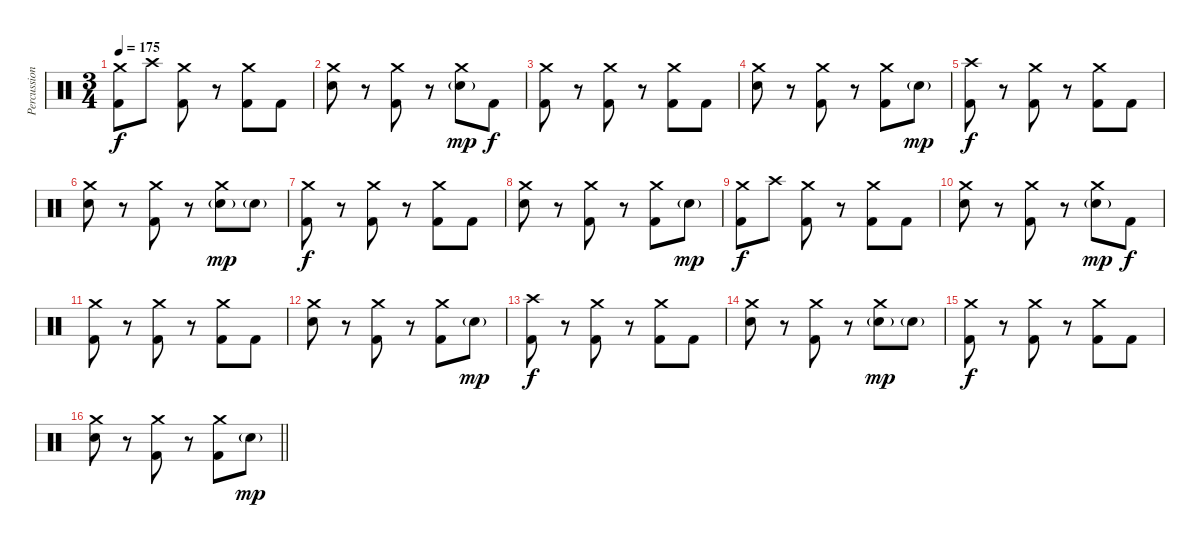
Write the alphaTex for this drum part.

\track ("Percussion" "Percussion") {instrument percussion}
\staff {score}
\articulation defaults
\ts (3 4)
\tempo 175
\clef neutral
\ks c
("Crash medium (hit)" "Kick (hit) 2").8{dy f} "Crash high (hit)".8 ("Crash medium (hit)" "Kick (hit) 2").8 r.8 ("Crash medium (hit)" "Kick (hit) 2").8 "Kick (hit) 2".8 |
("Crash medium (hit)" "Electric Snare (hit)").8 r.8 ("Crash medium (hit)" "Kick (hit) 2").8 r.8 ("Crash medium (hit)" "Electric Snare (hit)"{g}).8{dy mp} "Kick (hit) 2".8{dy f} |
("Crash medium (hit)" "Kick (hit) 2").8 r.8 ("Crash medium (hit)" "Kick (hit) 2").8 r.8 ("Crash medium (hit)" "Kick (hit) 2").8 "Kick (hit) 2".8 |
("Crash medium (hit)" "Electric Snare (hit)").8 r.8 ("Crash medium (hit)" "Kick (hit) 2").8 r.8 ("Crash medium (hit)" "Kick (hit) 2").8 "Electric Snare (hit)"{g}.8{dy mp} |
("Crash high (hit)" "Kick (hit) 2").8{dy f} r.8 ("Crash medium (hit)" "Kick (hit) 2").8 r.8 ("Crash medium (hit)" "Kick (hit) 2").8 "Kick (hit) 2".8 |
("Crash medium (hit)" "Electric Snare (hit)").8 r.8 ("Crash medium (hit)" "Kick (hit) 2").8 r.8 ("Crash medium (hit)" "Electric Snare (hit)"{g}).8{dy mp} "Electric Snare (hit)"{g}.8 |
("Crash medium (hit)" "Kick (hit) 2").8{dy f} r.8 ("Crash medium (hit)" "Kick (hit) 2").8 r.8 ("Crash medium (hit)" "Kick (hit) 2").8 "Kick (hit) 2".8 |
("Crash medium (hit)" "Electric Snare (hit)").8 r.8 ("Crash medium (hit)" "Kick (hit) 2").8 r.8 ("Crash medium (hit)" "Kick (hit) 2").8 "Electric Snare (hit)"{g}.8{dy mp} |
("Crash medium (hit)" "Kick (hit) 2").8{dy f} "Crash high (hit)".8 ("Crash medium (hit)" "Kick (hit) 2").8 r.8 ("Crash medium (hit)" "Kick (hit) 2").8 "Kick (hit) 2".8 |
("Crash medium (hit)" "Electric Snare (hit)").8 r.8 ("Crash medium (hit)" "Kick (hit) 2").8 r.8 ("Crash medium (hit)" "Electric Snare (hit)"{g}).8{dy mp} "Kick (hit) 2".8{dy f} |
("Crash medium (hit)" "Kick (hit) 2").8 r.8 ("Crash medium (hit)" "Kick (hit) 2").8 r.8 ("Crash medium (hit)" "Kick (hit) 2").8 "Kick (hit) 2".8 |
("Crash medium (hit)" "Electric Snare (hit)").8 r.8 ("Crash medium (hit)" "Kick (hit) 2").8 r.8 ("Crash medium (hit)" "Kick (hit) 2").8 "Electric Snare (hit)"{g}.8{dy mp} |
("Crash high (hit)" "Kick (hit) 2").8{dy f} r.8 ("Crash medium (hit)" "Kick (hit) 2").8 r.8 ("Crash medium (hit)" "Kick (hit) 2").8 "Kick (hit) 2".8 |
("Crash medium (hit)" "Electric Snare (hit)").8 r.8 ("Crash medium (hit)" "Kick (hit) 2").8 r.8 ("Crash medium (hit)" "Electric Snare (hit)"{g}).8{dy mp} "Electric Snare (hit)"{g}.8 |
("Crash medium (hit)" "Kick (hit) 2").8{dy f} r.8 ("Crash medium (hit)" "Kick (hit) 2").8 r.8 ("Crash medium (hit)" "Kick (hit) 2").8 "Kick (hit) 2".8 |
\barLineRight lightlight
("Crash medium (hit)" "Electric Snare (hit)").8 r.8 ("Crash medium (hit)" "Kick (hit) 2").8 r.8 ("Crash medium (hit)" "Kick (hit) 2").8 "Electric Snare (hit)"{g}.8{dy mp}
